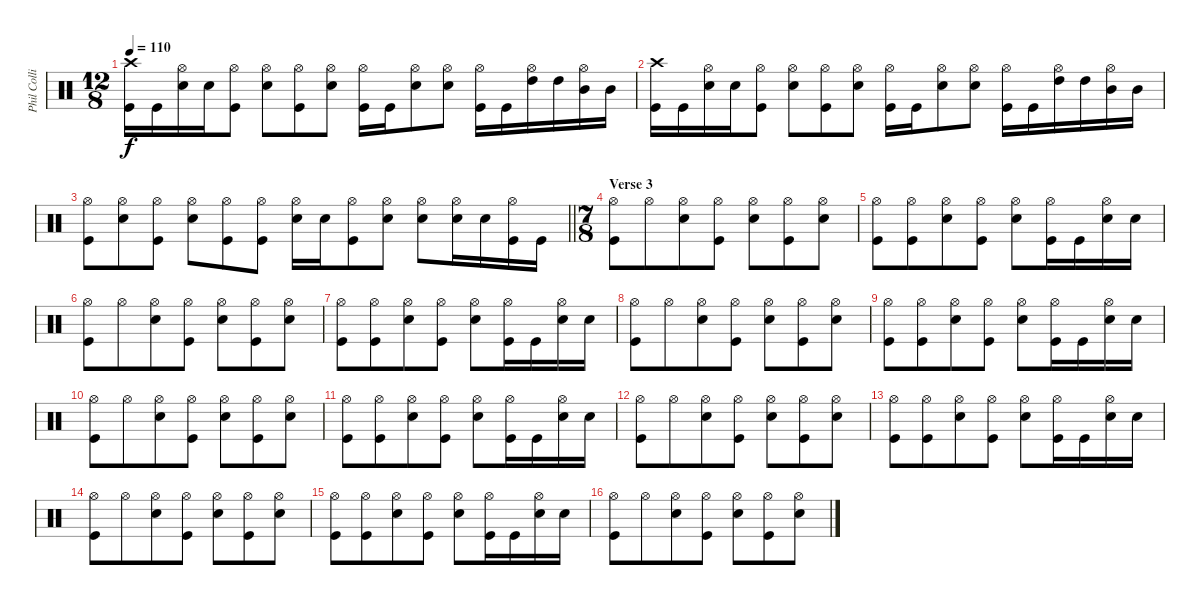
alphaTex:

\track ("Phil Collins" "Phil Colli") {instrument percussion}
\staff {score}
\articulation defaults
\ts (12 8)
\tempo 110
\clef neutral
\ks c
("Kick (hit)" "Crash high (hit)").16{dy f} "Kick (hit)".16 ("Snare (hit) 2" "Hi-Hat (open)").16 "Snare (hit) 2".16 ("Kick (hit)" "Hi-Hat (open)").8 ("Snare (hit) 2" "Hi-Hat (open)").8 ("Kick (hit)" "Hi-Hat (open)").8 ("Snare (hit) 2" "Hi-Hat (open)").8 ("Kick (hit)" "Hi-Hat (open)").16 "Kick (hit)".16 ("Snare (hit) 2" "Hi-Hat (open)").8 ("Snare (hit) 2" "Hi-Hat (open)").8 ("Kick (hit)" "Hi-Hat (open)").16 "Kick (hit)".16 ("High Tom (hit)" "Hi-Hat (open)").16 "High Tom (hit)".16 ("Mid Tom (hit)" "Hi-Hat (open)").16 "Mid Tom (hit)".16 |
("Kick (hit)" "Crash high (hit)").16 "Kick (hit)".16 ("Snare (hit) 2" "Hi-Hat (open)").16 "Snare (hit) 2".16 ("Kick (hit)" "Hi-Hat (open)").8 ("Snare (hit) 2" "Hi-Hat (open)").8 ("Kick (hit)" "Hi-Hat (open)").8 ("Snare (hit) 2" "Hi-Hat (open)").8 ("Kick (hit)" "Hi-Hat (open)").16 "Kick (hit)".16 ("Snare (hit) 2" "Hi-Hat (open)").8 ("Snare (hit) 2" "Hi-Hat (open)").8 ("Kick (hit)" "Hi-Hat (open)").16 "Kick (hit)".16 ("High Tom (hit)" "Hi-Hat (open)").16 "High Tom (hit)".16 ("Mid Tom (hit)" "Hi-Hat (open)").16 "Mid Tom (hit)".16 |
\barLineRight lightlight
("Kick (hit)" "Hi-Hat (open)").8 ("Snare (hit) 2" "Hi-Hat (open)").8 ("Kick (hit)" "Hi-Hat (open)").8 ("Snare (hit) 2" "Hi-Hat (open)").8 ("Hi-Hat (open)" "Kick (hit)").8 ("Hi-Hat (open)" "Kick (hit)").8 ("Snare (hit) 2" "Hi-Hat (open)").16 "Snare (hit) 2".16 ("Kick (hit)" "Hi-Hat (open)").8 ("Snare (hit) 2" "Hi-Hat (open)").8 ("Snare (hit) 2" "Hi-Hat (open)").8 ("Snare (hit) 2" "Hi-Hat (open)").16 "Snare (hit) 2".16 ("Kick (hit)" "Hi-Hat (open)").16 "Kick (hit)".16 |
\ts (7 8)
\section ("" "Verse 3")
("Kick (hit)" "Hi-Hat (open)").8 "Hi-Hat (open)".8 ("Hi-Hat (open)" "Snare (hit) 2").8 ("Hi-Hat (open)" "Kick (hit)").8 ("Hi-Hat (open)" "Snare (hit) 2").8 ("Hi-Hat (open)" "Kick (hit)").8 ("Hi-Hat (open)" "Snare (hit) 2").8 |
("Kick (hit)" "Hi-Hat (open)").8 ("Hi-Hat (open)" "Kick (hit)").8 ("Snare (hit) 2" "Hi-Hat (open)").8 ("Kick (hit)" "Hi-Hat (open)").8 ("Snare (hit) 2" "Hi-Hat (open)").8 ("Hi-Hat (open)" "Kick (hit)").16 "Kick (hit)".16 ("Snare (hit) 2" "Hi-Hat (open)").16 "Snare (hit) 2".16 |
("Kick (hit)" "Hi-Hat (open)").8 "Hi-Hat (open)".8 ("Hi-Hat (open)" "Snare (hit) 2").8 ("Hi-Hat (open)" "Kick (hit)").8 ("Hi-Hat (open)" "Snare (hit) 2").8 ("Hi-Hat (open)" "Kick (hit)").8 ("Hi-Hat (open)" "Snare (hit) 2").8 |
("Kick (hit)" "Hi-Hat (open)").8 ("Hi-Hat (open)" "Kick (hit)").8 ("Snare (hit) 2" "Hi-Hat (open)").8 ("Kick (hit)" "Hi-Hat (open)").8 ("Snare (hit) 2" "Hi-Hat (open)").8 ("Hi-Hat (open)" "Kick (hit)").16 "Kick (hit)".16 ("Snare (hit) 2" "Hi-Hat (open)").16 "Snare (hit) 2".16 |
("Kick (hit)" "Hi-Hat (open)").8 "Hi-Hat (open)".8 ("Hi-Hat (open)" "Snare (hit) 2").8 ("Hi-Hat (open)" "Kick (hit)").8 ("Hi-Hat (open)" "Snare (hit) 2").8 ("Hi-Hat (open)" "Kick (hit)").8 ("Hi-Hat (open)" "Snare (hit) 2").8 |
("Kick (hit)" "Hi-Hat (open)").8 ("Hi-Hat (open)" "Kick (hit)").8 ("Snare (hit) 2" "Hi-Hat (open)").8 ("Kick (hit)" "Hi-Hat (open)").8 ("Snare (hit) 2" "Hi-Hat (open)").8 ("Hi-Hat (open)" "Kick (hit)").16 "Kick (hit)".16 ("Snare (hit) 2" "Hi-Hat (open)").16 "Snare (hit) 2".16 |
("Kick (hit)" "Hi-Hat (open)").8 "Hi-Hat (open)".8 ("Hi-Hat (open)" "Snare (hit) 2").8 ("Hi-Hat (open)" "Kick (hit)").8 ("Hi-Hat (open)" "Snare (hit) 2").8 ("Hi-Hat (open)" "Kick (hit)").8 ("Hi-Hat (open)" "Snare (hit) 2").8 |
("Kick (hit)" "Hi-Hat (open)").8 ("Hi-Hat (open)" "Kick (hit)").8 ("Snare (hit) 2" "Hi-Hat (open)").8 ("Kick (hit)" "Hi-Hat (open)").8 ("Snare (hit) 2" "Hi-Hat (open)").8 ("Hi-Hat (open)" "Kick (hit)").16 "Kick (hit)".16 ("Snare (hit) 2" "Hi-Hat (open)").16 "Snare (hit) 2".16 |
("Kick (hit)" "Hi-Hat (open)").8 "Hi-Hat (open)".8 ("Hi-Hat (open)" "Snare (hit) 2").8 ("Hi-Hat (open)" "Kick (hit)").8 ("Hi-Hat (open)" "Snare (hit) 2").8 ("Hi-Hat (open)" "Kick (hit)").8 ("Hi-Hat (open)" "Snare (hit) 2").8 |
("Kick (hit)" "Hi-Hat (open)").8 ("Hi-Hat (open)" "Kick (hit)").8 ("Snare (hit) 2" "Hi-Hat (open)").8 ("Kick (hit)" "Hi-Hat (open)").8 ("Snare (hit) 2" "Hi-Hat (open)").8 ("Hi-Hat (open)" "Kick (hit)").16 "Kick (hit)".16 ("Snare (hit) 2" "Hi-Hat (open)").16 "Snare (hit) 2".16 |
("Kick (hit)" "Hi-Hat (open)").8 "Hi-Hat (open)".8 ("Hi-Hat (open)" "Snare (hit) 2").8 ("Hi-Hat (open)" "Kick (hit)").8 ("Hi-Hat (open)" "Snare (hit) 2").8 ("Hi-Hat (open)" "Kick (hit)").8 ("Hi-Hat (open)" "Snare (hit) 2").8 |
("Kick (hit)" "Hi-Hat (open)").8 ("Hi-Hat (open)" "Kick (hit)").8 ("Snare (hit) 2" "Hi-Hat (open)").8 ("Kick (hit)" "Hi-Hat (open)").8 ("Snare (hit) 2" "Hi-Hat (open)").8 ("Hi-Hat (open)" "Kick (hit)").16 "Kick (hit)".16 ("Snare (hit) 2" "Hi-Hat (open)").16 "Snare (hit) 2".16 |
("Kick (hit)" "Hi-Hat (open)").8 "Hi-Hat (open)".8 ("Hi-Hat (open)" "Snare (hit) 2").8 ("Hi-Hat (open)" "Kick (hit)").8 ("Hi-Hat (open)" "Snare (hit) 2").8 ("Hi-Hat (open)" "Kick (hit)").8 ("Hi-Hat (open)" "Snare (hit) 2").8
